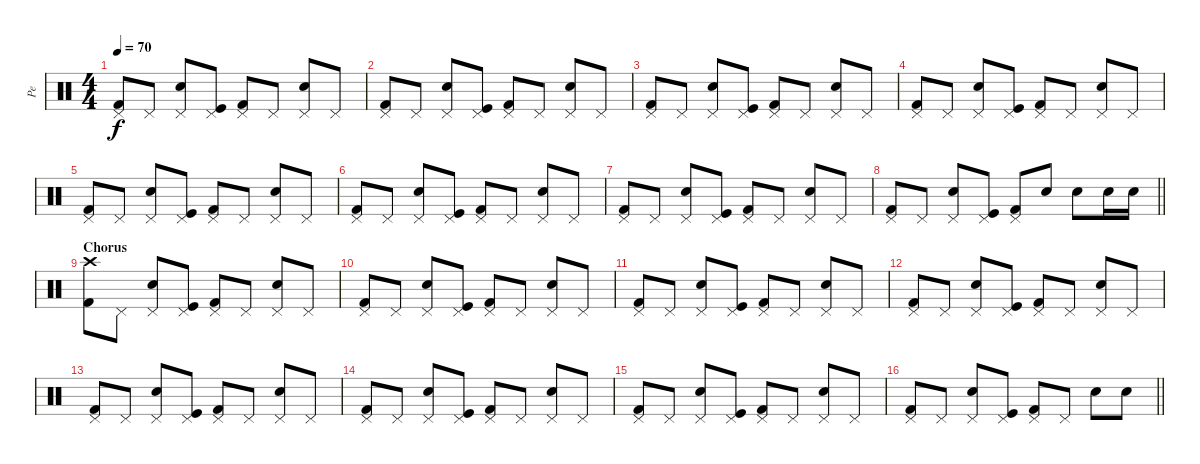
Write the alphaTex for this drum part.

\track ("Pe" "Pe") {instrument percussion}
\staff {score}
\articulation defaults
\ts (4 4)
\tempo 70
\clef neutral
\ks c
("Kick (hit) 2" "Pedal Hi-Hat (hit)").8{dy f} "Pedal Hi-Hat (hit)".8 ("Electric Snare (hit)" "Pedal Hi-Hat (hit)").8 ("Kick (hit)" "Pedal Hi-Hat (hit)").8 ("Kick (hit) 2" "Pedal Hi-Hat (hit)").8 "Pedal Hi-Hat (hit)".8 ("Electric Snare (hit)" "Pedal Hi-Hat (hit)").8 "Pedal Hi-Hat (hit)".8 |
("Kick (hit) 2" "Pedal Hi-Hat (hit)").8 "Pedal Hi-Hat (hit)".8 ("Electric Snare (hit)" "Pedal Hi-Hat (hit)").8 ("Kick (hit)" "Pedal Hi-Hat (hit)").8 ("Kick (hit) 2" "Pedal Hi-Hat (hit)").8 "Pedal Hi-Hat (hit)".8 ("Electric Snare (hit)" "Pedal Hi-Hat (hit)").8 "Pedal Hi-Hat (hit)".8 |
("Kick (hit) 2" "Pedal Hi-Hat (hit)").8 "Pedal Hi-Hat (hit)".8 ("Electric Snare (hit)" "Pedal Hi-Hat (hit)").8 ("Kick (hit)" "Pedal Hi-Hat (hit)").8 ("Kick (hit) 2" "Pedal Hi-Hat (hit)").8 "Pedal Hi-Hat (hit)".8 ("Electric Snare (hit)" "Pedal Hi-Hat (hit)").8 "Pedal Hi-Hat (hit)".8 |
("Kick (hit) 2" "Pedal Hi-Hat (hit)").8 "Pedal Hi-Hat (hit)".8 ("Electric Snare (hit)" "Pedal Hi-Hat (hit)").8 ("Kick (hit)" "Pedal Hi-Hat (hit)").8 ("Kick (hit) 2" "Pedal Hi-Hat (hit)").8 "Pedal Hi-Hat (hit)".8 ("Electric Snare (hit)" "Pedal Hi-Hat (hit)").8 "Pedal Hi-Hat (hit)".8 |
("Kick (hit) 2" "Pedal Hi-Hat (hit)").8 "Pedal Hi-Hat (hit)".8 ("Electric Snare (hit)" "Pedal Hi-Hat (hit)").8 ("Kick (hit)" "Pedal Hi-Hat (hit)").8 ("Kick (hit) 2" "Pedal Hi-Hat (hit)").8 "Pedal Hi-Hat (hit)".8 ("Electric Snare (hit)" "Pedal Hi-Hat (hit)").8 "Pedal Hi-Hat (hit)".8 |
("Kick (hit) 2" "Pedal Hi-Hat (hit)").8 "Pedal Hi-Hat (hit)".8 ("Electric Snare (hit)" "Pedal Hi-Hat (hit)").8 ("Kick (hit)" "Pedal Hi-Hat (hit)").8 ("Kick (hit) 2" "Pedal Hi-Hat (hit)").8 "Pedal Hi-Hat (hit)".8 ("Electric Snare (hit)" "Pedal Hi-Hat (hit)").8 "Pedal Hi-Hat (hit)".8 |
("Kick (hit) 2" "Pedal Hi-Hat (hit)").8 "Pedal Hi-Hat (hit)".8 ("Electric Snare (hit)" "Pedal Hi-Hat (hit)").8 ("Kick (hit)" "Pedal Hi-Hat (hit)").8 ("Kick (hit) 2" "Pedal Hi-Hat (hit)").8 "Pedal Hi-Hat (hit)".8 ("Electric Snare (hit)" "Pedal Hi-Hat (hit)").8 "Pedal Hi-Hat (hit)".8 |
\barLineRight lightlight
("Kick (hit) 2" "Pedal Hi-Hat (hit)").8 "Pedal Hi-Hat (hit)".8 ("Electric Snare (hit)" "Pedal Hi-Hat (hit)").8 ("Kick (hit)" "Pedal Hi-Hat (hit)").8 ("Kick (hit) 2" "Pedal Hi-Hat (hit)").8 "Electric Snare (hit)".8 "Electric Snare (hit)".8 "Electric Snare (hit)".16 "Electric Snare (hit)".16 |
\section ("" "Chorus")
("Kick (hit) 2" "Crash high (hit)").8 "Pedal Hi-Hat (hit)".8 ("Electric Snare (hit)" "Pedal Hi-Hat (hit)").8 ("Kick (hit)" "Pedal Hi-Hat (hit)").8 ("Kick (hit) 2" "Pedal Hi-Hat (hit)").8 "Pedal Hi-Hat (hit)".8 ("Electric Snare (hit)" "Pedal Hi-Hat (hit)").8 "Pedal Hi-Hat (hit)".8 |
("Kick (hit) 2" "Pedal Hi-Hat (hit)").8 "Pedal Hi-Hat (hit)".8 ("Electric Snare (hit)" "Pedal Hi-Hat (hit)").8 ("Kick (hit)" "Pedal Hi-Hat (hit)").8 ("Kick (hit) 2" "Pedal Hi-Hat (hit)").8 "Pedal Hi-Hat (hit)".8 ("Electric Snare (hit)" "Pedal Hi-Hat (hit)").8 "Pedal Hi-Hat (hit)".8 |
("Kick (hit) 2" "Pedal Hi-Hat (hit)").8 "Pedal Hi-Hat (hit)".8 ("Electric Snare (hit)" "Pedal Hi-Hat (hit)").8 ("Kick (hit)" "Pedal Hi-Hat (hit)").8 ("Kick (hit) 2" "Pedal Hi-Hat (hit)").8 "Pedal Hi-Hat (hit)".8 ("Electric Snare (hit)" "Pedal Hi-Hat (hit)").8 "Pedal Hi-Hat (hit)".8 |
("Kick (hit) 2" "Pedal Hi-Hat (hit)").8 "Pedal Hi-Hat (hit)".8 ("Electric Snare (hit)" "Pedal Hi-Hat (hit)").8 ("Kick (hit)" "Pedal Hi-Hat (hit)").8 ("Kick (hit) 2" "Pedal Hi-Hat (hit)").8 "Pedal Hi-Hat (hit)".8 ("Electric Snare (hit)" "Pedal Hi-Hat (hit)").8 "Pedal Hi-Hat (hit)".8 |
("Kick (hit) 2" "Pedal Hi-Hat (hit)").8 "Pedal Hi-Hat (hit)".8 ("Electric Snare (hit)" "Pedal Hi-Hat (hit)").8 ("Kick (hit)" "Pedal Hi-Hat (hit)").8 ("Kick (hit) 2" "Pedal Hi-Hat (hit)").8 "Pedal Hi-Hat (hit)".8 ("Electric Snare (hit)" "Pedal Hi-Hat (hit)").8 "Pedal Hi-Hat (hit)".8 |
("Kick (hit) 2" "Pedal Hi-Hat (hit)").8 "Pedal Hi-Hat (hit)".8 ("Electric Snare (hit)" "Pedal Hi-Hat (hit)").8 ("Kick (hit)" "Pedal Hi-Hat (hit)").8 ("Kick (hit) 2" "Pedal Hi-Hat (hit)").8 "Pedal Hi-Hat (hit)".8 ("Electric Snare (hit)" "Pedal Hi-Hat (hit)").8 "Pedal Hi-Hat (hit)".8 |
("Kick (hit) 2" "Pedal Hi-Hat (hit)").8 "Pedal Hi-Hat (hit)".8 ("Electric Snare (hit)" "Pedal Hi-Hat (hit)").8 ("Kick (hit)" "Pedal Hi-Hat (hit)").8 ("Kick (hit) 2" "Pedal Hi-Hat (hit)").8 "Pedal Hi-Hat (hit)".8 ("Electric Snare (hit)" "Pedal Hi-Hat (hit)").8 "Pedal Hi-Hat (hit)".8 |
\barLineRight lightlight
("Kick (hit) 2" "Pedal Hi-Hat (hit)").8 "Pedal Hi-Hat (hit)".8 ("Electric Snare (hit)" "Pedal Hi-Hat (hit)").8 ("Kick (hit)" "Pedal Hi-Hat (hit)").8 ("Kick (hit) 2" "Pedal Hi-Hat (hit)").8 "Pedal Hi-Hat (hit)".8 "Electric Snare (hit)".8 "Electric Snare (hit)".8
